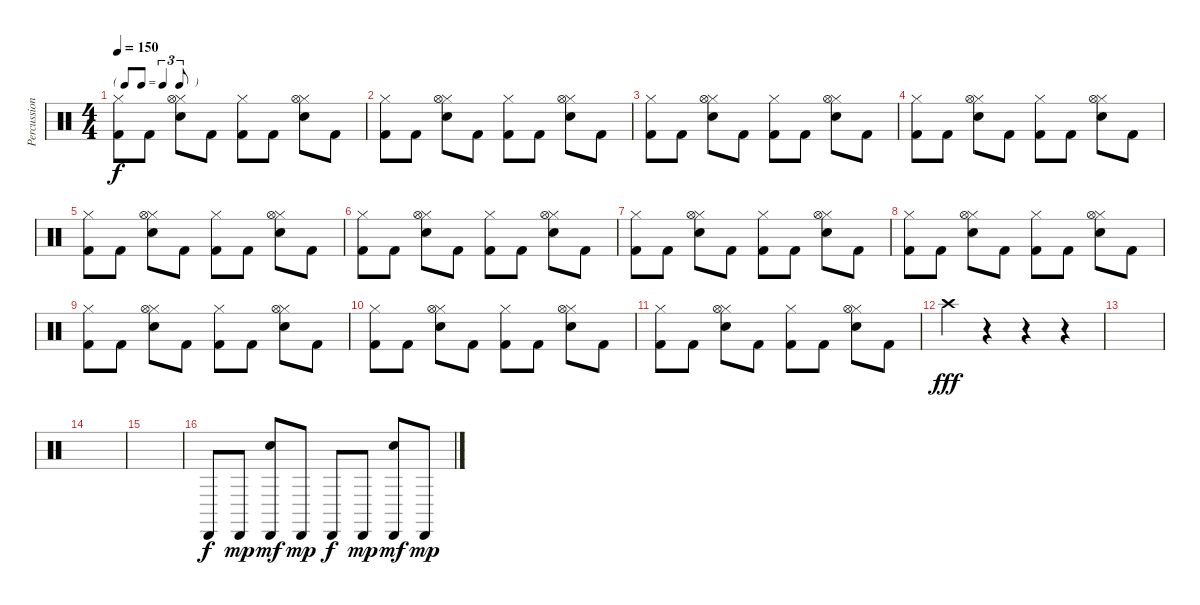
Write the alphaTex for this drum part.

\track ("Percussion" "Percussion") {instrument percussion}
\staff {score}
\articulation defaults
\ts (4 4)
\tf triplet8th
\tempo 150
\clef neutral
\ks c
("Hi-Hat (closed)" "Kick (hit) 2").8{dy f} "Kick (hit) 2".8 ("Hi-Hat (closed)" "Electric Snare (hit)" "Hi-Hat (open)").8 "Kick (hit) 2".8 ("Hi-Hat (closed)" "Kick (hit) 2").8 "Kick (hit) 2".8 ("Hi-Hat (closed)" "Electric Snare (hit)" "Hi-Hat (open)").8 "Kick (hit) 2".8 |
("Hi-Hat (closed)" "Kick (hit) 2").8 "Kick (hit) 2".8 ("Hi-Hat (closed)" "Electric Snare (hit)" "Hi-Hat (open)").8 "Kick (hit) 2".8 ("Hi-Hat (closed)" "Kick (hit) 2").8 "Kick (hit) 2".8 ("Hi-Hat (closed)" "Electric Snare (hit)" "Hi-Hat (open)").8 "Kick (hit) 2".8 |
("Hi-Hat (closed)" "Kick (hit) 2").8 "Kick (hit) 2".8 ("Hi-Hat (closed)" "Electric Snare (hit)" "Hi-Hat (open)").8 "Kick (hit) 2".8 ("Hi-Hat (closed)" "Kick (hit) 2").8 "Kick (hit) 2".8 ("Hi-Hat (closed)" "Electric Snare (hit)" "Hi-Hat (open)").8 "Kick (hit) 2".8 |
("Hi-Hat (closed)" "Kick (hit) 2").8 "Kick (hit) 2".8 ("Hi-Hat (closed)" "Electric Snare (hit)" "Hi-Hat (open)").8 "Kick (hit) 2".8 ("Hi-Hat (closed)" "Kick (hit) 2").8 "Kick (hit) 2".8 ("Hi-Hat (closed)" "Electric Snare (hit)" "Hi-Hat (open)").8 "Kick (hit) 2".8 |
("Hi-Hat (closed)" "Kick (hit) 2").8 "Kick (hit) 2".8 ("Hi-Hat (closed)" "Electric Snare (hit)" "Hi-Hat (open)").8 "Kick (hit) 2".8 ("Hi-Hat (closed)" "Kick (hit) 2").8 "Kick (hit) 2".8 ("Hi-Hat (closed)" "Electric Snare (hit)" "Hi-Hat (open)").8 "Kick (hit) 2".8 |
("Hi-Hat (closed)" "Kick (hit) 2").8 "Kick (hit) 2".8 ("Hi-Hat (closed)" "Electric Snare (hit)" "Hi-Hat (open)").8 "Kick (hit) 2".8 ("Hi-Hat (closed)" "Kick (hit) 2").8 "Kick (hit) 2".8 ("Hi-Hat (closed)" "Electric Snare (hit)" "Hi-Hat (open)").8 "Kick (hit) 2".8 |
("Hi-Hat (closed)" "Kick (hit) 2").8 "Kick (hit) 2".8 ("Hi-Hat (closed)" "Electric Snare (hit)" "Hi-Hat (open)").8 "Kick (hit) 2".8 ("Hi-Hat (closed)" "Kick (hit) 2").8 "Kick (hit) 2".8 ("Hi-Hat (closed)" "Electric Snare (hit)" "Hi-Hat (open)").8 "Kick (hit) 2".8 |
("Hi-Hat (closed)" "Kick (hit) 2").8 "Kick (hit) 2".8 ("Hi-Hat (closed)" "Electric Snare (hit)" "Hi-Hat (open)").8 "Kick (hit) 2".8 ("Hi-Hat (closed)" "Kick (hit) 2").8 "Kick (hit) 2".8 ("Hi-Hat (closed)" "Electric Snare (hit)" "Hi-Hat (open)").8 "Kick (hit) 2".8 |
("Hi-Hat (closed)" "Kick (hit) 2").8 "Kick (hit) 2".8 ("Hi-Hat (closed)" "Electric Snare (hit)" "Hi-Hat (open)").8 "Kick (hit) 2".8 ("Hi-Hat (closed)" "Kick (hit) 2").8 "Kick (hit) 2".8 ("Hi-Hat (closed)" "Electric Snare (hit)" "Hi-Hat (open)").8 "Kick (hit) 2".8 |
("Hi-Hat (closed)" "Kick (hit) 2").8 "Kick (hit) 2".8 ("Hi-Hat (closed)" "Electric Snare (hit)" "Hi-Hat (open)").8 "Kick (hit) 2".8 ("Hi-Hat (closed)" "Kick (hit) 2").8 "Kick (hit) 2".8 ("Hi-Hat (closed)" "Electric Snare (hit)" "Hi-Hat (open)").8 "Kick (hit) 2".8 |
("Hi-Hat (closed)" "Kick (hit) 2").8 "Kick (hit) 2".8 ("Hi-Hat (closed)" "Electric Snare (hit)" "Hi-Hat (open)").8 "Kick (hit) 2".8 ("Hi-Hat (closed)" "Kick (hit) 2").8 "Kick (hit) 2".8 ("Hi-Hat (closed)" "Electric Snare (hit)" "Hi-Hat (open)").8 "Kick (hit) 2".8 |
"Crash high (hit)".4{dy fff} r.4 r.4 r.4 |
|
|
|
"Cabasa (hit)".8{dy f} "Cabasa (hit)".8{dy mp} ("Cabasa (hit)" "Hand Clap (hit)").8{dy mf} "Cabasa (hit)".8{dy mp} "Cabasa (hit)".8{dy f} "Cabasa (hit)".8{dy mp} ("Cabasa (hit)" "Hand Clap (hit)").8{dy mf} "Cabasa (hit)".8{dy mp}
